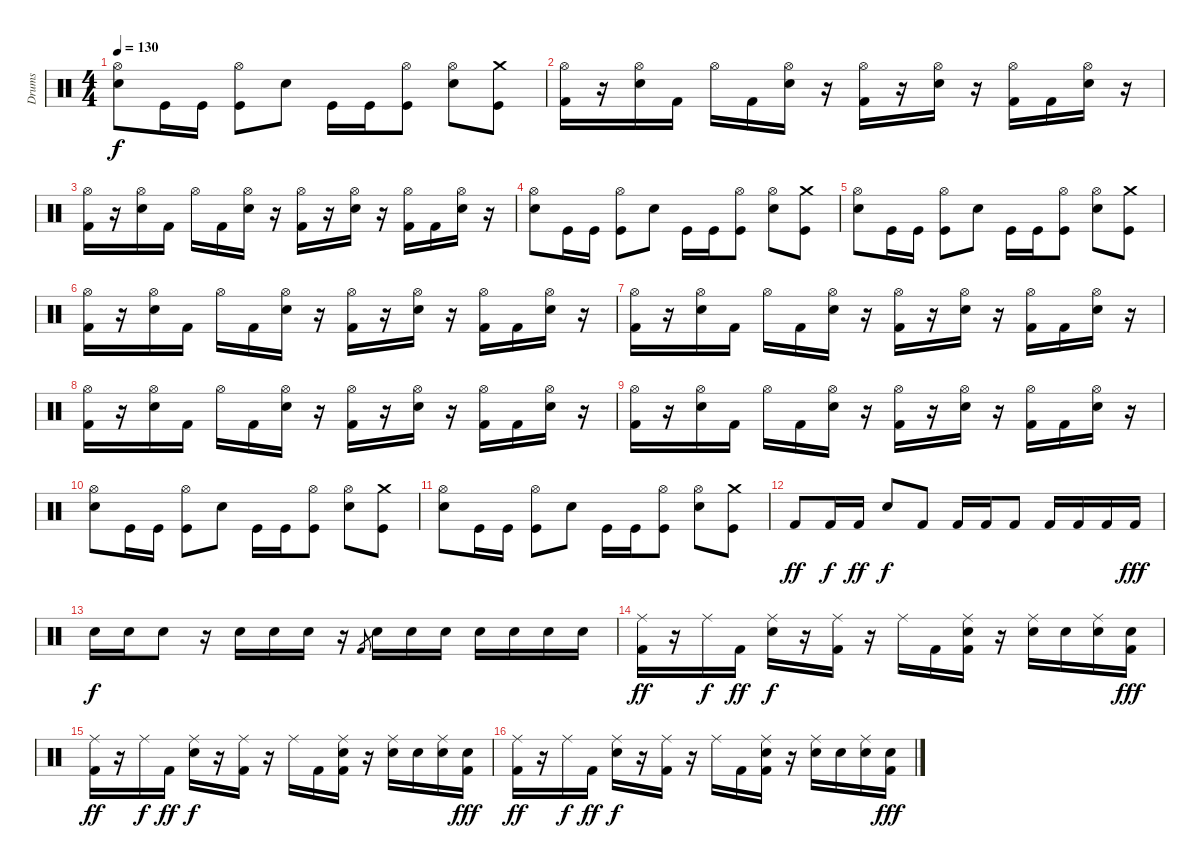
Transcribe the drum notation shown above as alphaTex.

\track ("Drums" "Drums") {instrument percussion}
\staff {score}
\articulation defaults
\ts (4 4)
\tempo 130
\clef neutral
\ks c
("Hi-Hat (open)" "Electric Snare (hit)").8{dy f} "Kick (hit)".16 "Kick (hit)".16 ("Hi-Hat (open)" "Kick (hit)").8 "Electric Snare (hit)".8 "Kick (hit)".16 "Kick (hit)".16 ("Hi-Hat (open)" "Kick (hit)").8 ("Hi-Hat (open)" "Electric Snare (hit)").8 ("Crash medium (hit)" "Kick (hit)").8 |
("Kick (hit) 2" "Hi-Hat (open)").16 r.16 ("Electric Snare (hit)" "Hi-Hat (open)").16 "Kick (hit) 2".16 "Hi-Hat (open)".16 "Kick (hit) 2".16 ("Electric Snare (hit)" "Hi-Hat (open)").16 r.16 ("Kick (hit) 2" "Hi-Hat (open)").16 r.16 ("Electric Snare (hit)" "Hi-Hat (open)").16 r.16 ("Kick (hit) 2" "Hi-Hat (open)").16 "Kick (hit) 2".16 ("Electric Snare (hit)" "Hi-Hat (open)").16 r.16 |
("Kick (hit) 2" "Hi-Hat (open)").16 r.16 ("Electric Snare (hit)" "Hi-Hat (open)").16 "Kick (hit) 2".16 "Hi-Hat (open)".16 "Kick (hit) 2".16 ("Electric Snare (hit)" "Hi-Hat (open)").16 r.16 ("Kick (hit) 2" "Hi-Hat (open)").16 r.16 ("Electric Snare (hit)" "Hi-Hat (open)").16 r.16 ("Kick (hit) 2" "Hi-Hat (open)").16 "Kick (hit) 2".16 ("Electric Snare (hit)" "Hi-Hat (open)").16 r.16 |
("Hi-Hat (open)" "Electric Snare (hit)").8 "Kick (hit)".16 "Kick (hit)".16 ("Hi-Hat (open)" "Kick (hit)").8 "Electric Snare (hit)".8 "Kick (hit)".16 "Kick (hit)".16 ("Hi-Hat (open)" "Kick (hit)").8 ("Hi-Hat (open)" "Electric Snare (hit)").8 ("Crash medium (hit)" "Kick (hit)").8 |
("Hi-Hat (open)" "Electric Snare (hit)").8 "Kick (hit)".16 "Kick (hit)".16 ("Hi-Hat (open)" "Kick (hit)").8 "Electric Snare (hit)".8 "Kick (hit)".16 "Kick (hit)".16 ("Hi-Hat (open)" "Kick (hit)").8 ("Hi-Hat (open)" "Electric Snare (hit)").8 ("Crash medium (hit)" "Kick (hit)").8 |
("Kick (hit) 2" "Hi-Hat (open)").16 r.16 ("Electric Snare (hit)" "Hi-Hat (open)").16 "Kick (hit) 2".16 "Hi-Hat (open)".16 "Kick (hit) 2".16 ("Electric Snare (hit)" "Hi-Hat (open)").16 r.16 ("Kick (hit) 2" "Hi-Hat (open)").16 r.16 ("Electric Snare (hit)" "Hi-Hat (open)").16 r.16 ("Kick (hit) 2" "Hi-Hat (open)").16 "Kick (hit) 2".16 ("Electric Snare (hit)" "Hi-Hat (open)").16 r.16 |
("Kick (hit) 2" "Hi-Hat (open)").16 r.16 ("Electric Snare (hit)" "Hi-Hat (open)").16 "Kick (hit) 2".16 "Hi-Hat (open)".16 "Kick (hit) 2".16 ("Electric Snare (hit)" "Hi-Hat (open)").16 r.16 ("Kick (hit) 2" "Hi-Hat (open)").16 r.16 ("Electric Snare (hit)" "Hi-Hat (open)").16 r.16 ("Kick (hit) 2" "Hi-Hat (open)").16 "Kick (hit) 2".16 ("Electric Snare (hit)" "Hi-Hat (open)").16 r.16 |
("Kick (hit) 2" "Hi-Hat (open)").16 r.16 ("Electric Snare (hit)" "Hi-Hat (open)").16 "Kick (hit) 2".16 "Hi-Hat (open)".16 "Kick (hit) 2".16 ("Electric Snare (hit)" "Hi-Hat (open)").16 r.16 ("Kick (hit) 2" "Hi-Hat (open)").16 r.16 ("Electric Snare (hit)" "Hi-Hat (open)").16 r.16 ("Kick (hit) 2" "Hi-Hat (open)").16 "Kick (hit) 2".16 ("Electric Snare (hit)" "Hi-Hat (open)").16 r.16 |
("Kick (hit) 2" "Hi-Hat (open)").16 r.16 ("Electric Snare (hit)" "Hi-Hat (open)").16 "Kick (hit) 2".16 "Hi-Hat (open)".16 "Kick (hit) 2".16 ("Electric Snare (hit)" "Hi-Hat (open)").16 r.16 ("Kick (hit) 2" "Hi-Hat (open)").16 r.16 ("Electric Snare (hit)" "Hi-Hat (open)").16 r.16 ("Kick (hit) 2" "Hi-Hat (open)").16 "Kick (hit) 2".16 ("Electric Snare (hit)" "Hi-Hat (open)").16 r.16 |
("Hi-Hat (open)" "Electric Snare (hit)").8 "Kick (hit)".16 "Kick (hit)".16 ("Hi-Hat (open)" "Kick (hit)").8 "Electric Snare (hit)".8 "Kick (hit)".16 "Kick (hit)".16 ("Hi-Hat (open)" "Kick (hit)").8 ("Hi-Hat (open)" "Electric Snare (hit)").8 ("Crash medium (hit)" "Kick (hit)").8 |
("Hi-Hat (open)" "Electric Snare (hit)").8 "Kick (hit)".16 "Kick (hit)".16 ("Hi-Hat (open)" "Kick (hit)").8 "Electric Snare (hit)".8 "Kick (hit)".16 "Kick (hit)".16 ("Hi-Hat (open)" "Kick (hit)").8 ("Hi-Hat (open)" "Electric Snare (hit)").8 ("Crash medium (hit)" "Kick (hit)").8 |
"Kick (hit) 2".8{dy ff} "Kick (hit) 2".16{dy f} "Kick (hit) 2".16{dy ff} "Electric Snare (hit)".8{dy f} "Kick (hit) 2".8 "Kick (hit) 2".16 "Kick (hit) 2".16 "Kick (hit) 2".8 "Kick (hit) 2".16 "Kick (hit) 2".16 "Kick (hit) 2".16 "Kick (hit) 2".16{dy fff} |
"Electric Snare (hit)".16{dy f} "Electric Snare (hit)".16 "Electric Snare (hit)".8 r.16 "Electric Snare (hit)".16 "Electric Snare (hit)".16 "Electric Snare (hit)".16 r.16 "Kick (hit) 2".8{gr} "Electric Snare (hit)".16 "Electric Snare (hit)".16 "Electric Snare (hit)".16 "Electric Snare (hit)".16 "Electric Snare (hit)".16 "Electric Snare (hit)".16 "Electric Snare (hit)".16 |
("Kick (hit) 2" "Ride (middle)").16{dy ff} r.16 "Ride (middle)".16{dy f} "Kick (hit) 2".16{dy ff} ("Electric Snare (hit)" "Ride (middle)").16{dy f} r.16 ("Kick (hit) 2" "Ride (middle)").16 r.16 "Ride (middle)".16 "Kick (hit) 2".16 ("Electric Snare (hit)" "Kick (hit) 2" "Ride (middle)").16 r.16 ("Electric Snare (hit)" "Ride (middle)").16 "Electric Snare (hit)".16 ("Electric Snare (hit)" "Ride (middle)").16 ("Electric Snare (hit)" "Kick (hit) 2").16{dy fff} |
("Kick (hit) 2" "Ride (middle)").16{dy ff} r.16 "Ride (middle)".16{dy f} "Kick (hit) 2".16{dy ff} ("Electric Snare (hit)" "Ride (middle)").16{dy f} r.16 ("Kick (hit) 2" "Ride (middle)").16 r.16 "Ride (middle)".16 "Kick (hit) 2".16 ("Electric Snare (hit)" "Kick (hit) 2" "Ride (middle)").16 r.16 ("Electric Snare (hit)" "Ride (middle)").16 "Electric Snare (hit)".16 ("Electric Snare (hit)" "Ride (middle)").16 ("Electric Snare (hit)" "Kick (hit) 2").16{dy fff} |
("Kick (hit) 2" "Ride (middle)").16{dy ff} r.16 "Ride (middle)".16{dy f} "Kick (hit) 2".16{dy ff} ("Electric Snare (hit)" "Ride (middle)").16{dy f} r.16 ("Kick (hit) 2" "Ride (middle)").16 r.16 "Ride (middle)".16 "Kick (hit) 2".16 ("Electric Snare (hit)" "Kick (hit) 2" "Ride (middle)").16 r.16 ("Electric Snare (hit)" "Ride (middle)").16 "Electric Snare (hit)".16 ("Electric Snare (hit)" "Ride (middle)").16 ("Electric Snare (hit)" "Kick (hit) 2").16{dy fff}
